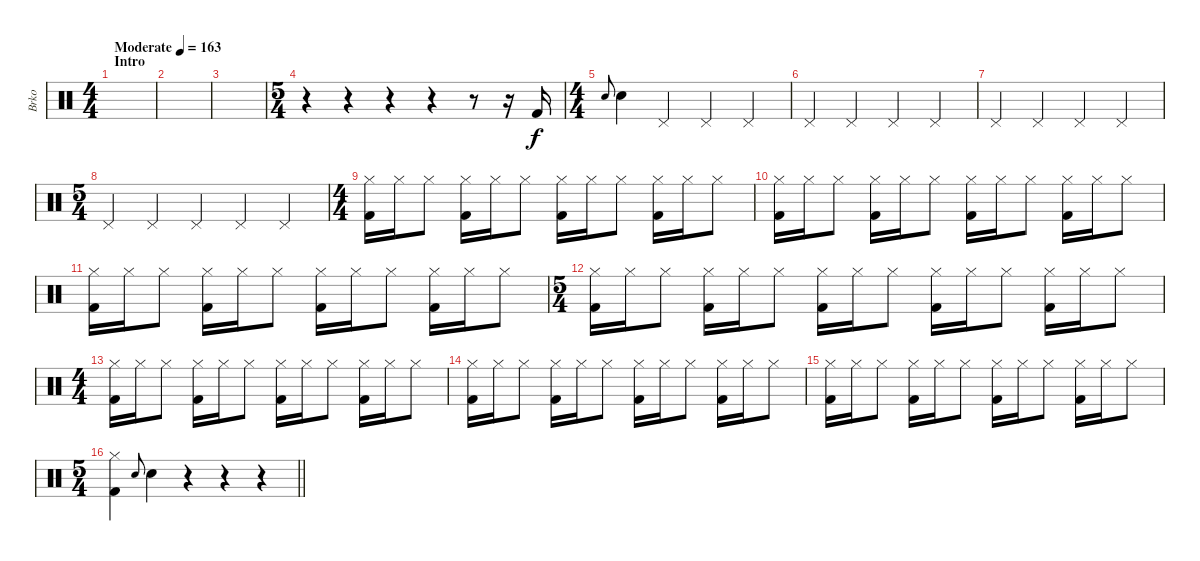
\track ("Brko" "Brko") {instrument percussion}
\staff {score}
\articulation defaults
\ts (4 4)
\section ("" "Intro")
\tempo (163 "Moderate")
\clef neutral
\ks c
|
|
|
\ts (5 4)
r.4 r.4 r.4 r.4 r.8 r.16 "Kick (hit) 2".16 |
\ts (4 4)
"Electric Snare (hit)".8{gr onbeat} "Electric Snare (hit)".4 "Pedal Hi-Hat (hit)".4 "Pedal Hi-Hat (hit)".4 "Pedal Hi-Hat (hit)".4 |
"Pedal Hi-Hat (hit)".4 "Pedal Hi-Hat (hit)".4 "Pedal Hi-Hat (hit)".4 "Pedal Hi-Hat (hit)".4 |
"Pedal Hi-Hat (hit)".4 "Pedal Hi-Hat (hit)".4 "Pedal Hi-Hat (hit)".4 "Pedal Hi-Hat (hit)".4 |
\ts (5 4)
"Pedal Hi-Hat (hit)".4 "Pedal Hi-Hat (hit)".4 "Pedal Hi-Hat (hit)".4 "Pedal Hi-Hat (hit)".4 "Pedal Hi-Hat (hit)".4 |
\ts (4 4)
("Hi-Hat (closed)" "Kick (hit) 2").16 "Hi-Hat (closed)".16 "Hi-Hat (closed)".8 ("Hi-Hat (closed)" "Kick (hit) 2").16 "Hi-Hat (closed)".16 "Hi-Hat (closed)".8 ("Hi-Hat (closed)" "Kick (hit) 2").16 "Hi-Hat (closed)".16 "Hi-Hat (closed)".8 ("Hi-Hat (closed)" "Kick (hit) 2").16 "Hi-Hat (closed)".16 "Hi-Hat (closed)".8 |
("Hi-Hat (closed)" "Kick (hit) 2").16 "Hi-Hat (closed)".16 "Hi-Hat (closed)".8 ("Hi-Hat (closed)" "Kick (hit) 2").16 "Hi-Hat (closed)".16 "Hi-Hat (closed)".8 ("Hi-Hat (closed)" "Kick (hit) 2").16 "Hi-Hat (closed)".16 "Hi-Hat (closed)".8 ("Hi-Hat (closed)" "Kick (hit) 2").16 "Hi-Hat (closed)".16 "Hi-Hat (closed)".8 |
("Hi-Hat (closed)" "Kick (hit) 2").16 "Hi-Hat (closed)".16 "Hi-Hat (closed)".8 ("Hi-Hat (closed)" "Kick (hit) 2").16 "Hi-Hat (closed)".16 "Hi-Hat (closed)".8 ("Hi-Hat (closed)" "Kick (hit) 2").16 "Hi-Hat (closed)".16 "Hi-Hat (closed)".8 ("Hi-Hat (closed)" "Kick (hit) 2").16 "Hi-Hat (closed)".16 "Hi-Hat (closed)".8 |
\ts (5 4)
("Hi-Hat (closed)" "Kick (hit) 2").16 "Hi-Hat (closed)".16 "Hi-Hat (closed)".8 ("Hi-Hat (closed)" "Kick (hit) 2").16 "Hi-Hat (closed)".16 "Hi-Hat (closed)".8 ("Hi-Hat (closed)" "Kick (hit) 2").16 "Hi-Hat (closed)".16 "Hi-Hat (closed)".8 ("Hi-Hat (closed)" "Kick (hit) 2").16 "Hi-Hat (closed)".16 "Hi-Hat (closed)".8 ("Hi-Hat (closed)" "Kick (hit) 2").16 "Hi-Hat (closed)".16 "Hi-Hat (closed)".8 |
\ts (4 4)
("Hi-Hat (closed)" "Kick (hit) 2").16 "Hi-Hat (closed)".16 "Hi-Hat (closed)".8 ("Hi-Hat (closed)" "Kick (hit) 2").16 "Hi-Hat (closed)".16 "Hi-Hat (closed)".8 ("Hi-Hat (closed)" "Kick (hit) 2").16 "Hi-Hat (closed)".16 "Hi-Hat (closed)".8 ("Hi-Hat (closed)" "Kick (hit) 2").16 "Hi-Hat (closed)".16 "Hi-Hat (closed)".8 |
("Hi-Hat (closed)" "Kick (hit) 2").16 "Hi-Hat (closed)".16 "Hi-Hat (closed)".8 ("Hi-Hat (closed)" "Kick (hit) 2").16 "Hi-Hat (closed)".16 "Hi-Hat (closed)".8 ("Hi-Hat (closed)" "Kick (hit) 2").16 "Hi-Hat (closed)".16 "Hi-Hat (closed)".8 ("Hi-Hat (closed)" "Kick (hit) 2").16 "Hi-Hat (closed)".16 "Hi-Hat (closed)".8 |
("Hi-Hat (closed)" "Kick (hit) 2").16 "Hi-Hat (closed)".16 "Hi-Hat (closed)".8 ("Hi-Hat (closed)" "Kick (hit) 2").16 "Hi-Hat (closed)".16 "Hi-Hat (closed)".8 ("Hi-Hat (closed)" "Kick (hit) 2").16 "Hi-Hat (closed)".16 "Hi-Hat (closed)".8 ("Hi-Hat (closed)" "Kick (hit) 2").16 "Hi-Hat (closed)".16 "Hi-Hat (closed)".8 |
\ts (5 4)
\barLineRight lightlight
("Hi-Hat (closed)" "Kick (hit) 2").4 "Electric Snare (hit)".8{gr onbeat} "Electric Snare (hit)".4 r.4 r.4 r.4
